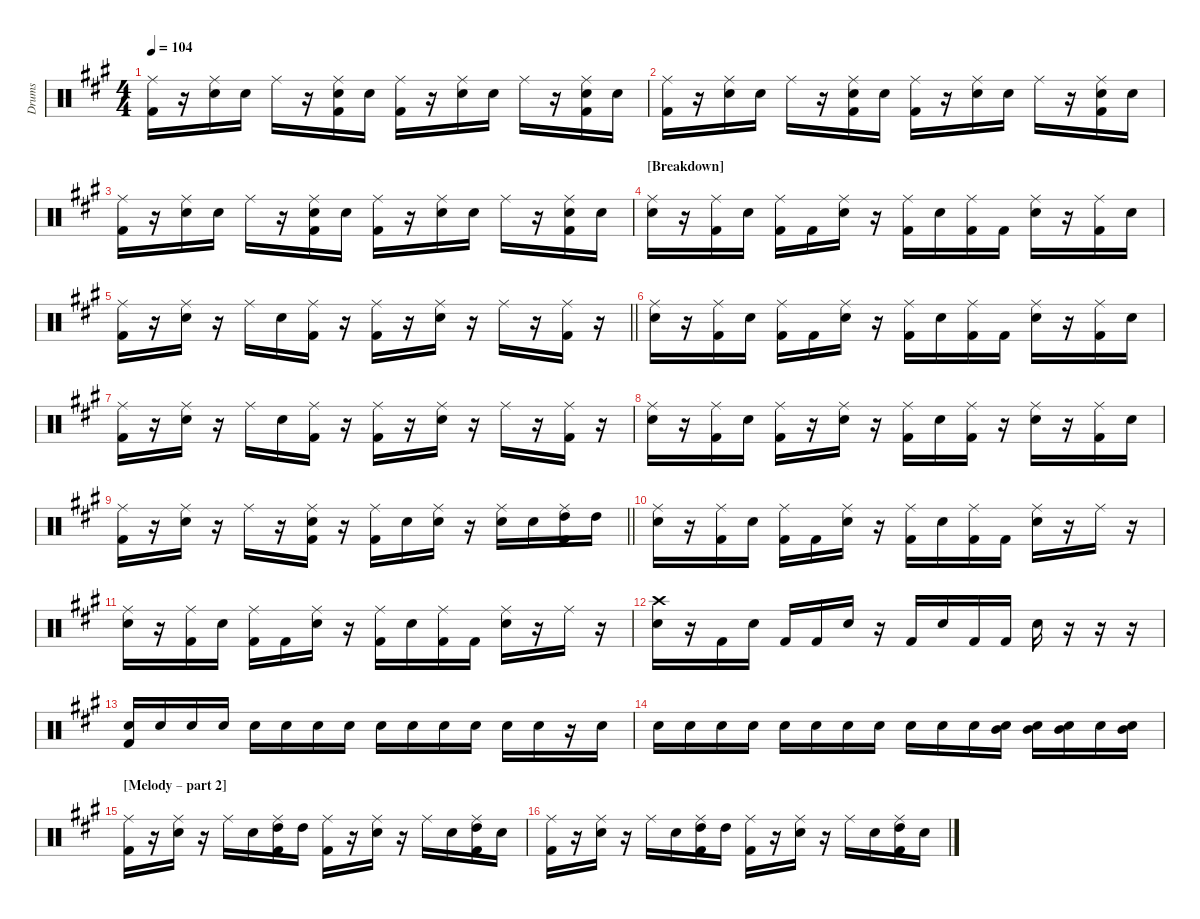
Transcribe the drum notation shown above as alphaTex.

\hideDynamics
\bracketExtendMode nobrackets
\otherSystemsTrackNameOrientation horizontal
\track ("Drumkit" "Drums") {instrument percussion}
\staff {score}
\articulation defaults
\ts (4 4)
\tempo 104
\clef neutral
\ks a
("Ride (middle)"{acc forcenatural} "Kick (hit) 2"{acc forcenatural}).16{dy f beam Down} r.16{beam Down} ("Ride (middle)"{acc forcenatural} "Snare (hit) 2"{acc forcenatural}).16{beam Down} "Snare (hit) 2"{acc forcenatural}.16{beam Down} "Ride (middle)"{acc forcenatural}.16{beam Down} r.16{beam Down} ("Ride (middle)"{acc forcenatural} "Snare (hit) 2"{acc forcenatural} "Kick (hit) 2"{acc forcenatural}).16{beam Down} "Snare (hit) 2"{acc forcenatural}.16{beam Down} ("Ride (middle)"{acc forcenatural} "Kick (hit) 2"{acc forcenatural}).16{beam Down} r.16{beam Down} ("Ride (middle)"{acc forcenatural} "Snare (hit) 2"{acc forcenatural}).16{beam Down} "Snare (hit) 2"{acc forcenatural}.16{beam Down} "Ride (middle)"{acc forcenatural}.16{beam Down} r.16{beam Down} ("Ride (middle)"{acc forcenatural} "Snare (hit) 2"{acc forcenatural} "Kick (hit) 2"{acc forcenatural}).16{beam Down} "Snare (hit) 2"{acc forcenatural}.16{beam Down} |
("Ride (middle)"{acc forcenatural} "Kick (hit) 2"{acc forcenatural}).16{beam Down} r.16{beam Down} ("Ride (middle)"{acc forcenatural} "Snare (hit) 2"{acc forcenatural}).16{beam Down} "Snare (hit) 2"{acc forcenatural}.16{beam Down} "Ride (middle)"{acc forcenatural}.16{beam Down} r.16{beam Down} ("Ride (middle)"{acc forcenatural} "Snare (hit) 2"{acc forcenatural} "Kick (hit) 2"{acc forcenatural}).16{beam Down} "Snare (hit) 2"{acc forcenatural}.16{beam Down} ("Ride (middle)"{acc forcenatural} "Kick (hit) 2"{acc forcenatural}).16{beam Down} r.16{beam Down} ("Ride (middle)"{acc forcenatural} "Snare (hit) 2"{acc forcenatural}).16{beam Down} "Snare (hit) 2"{acc forcenatural}.16{beam Down} "Ride (middle)"{acc forcenatural}.16{beam Down} r.16{beam Down} ("Ride (middle)"{acc forcenatural} "Snare (hit) 2"{acc forcenatural} "Kick (hit) 2"{acc forcenatural}).16{beam Down} "Snare (hit) 2"{acc forcenatural}.16{beam Down} |
("Ride (middle)"{acc forcenatural} "Kick (hit) 2"{acc forcenatural}).16{beam Down} r.16{beam Down} ("Ride (middle)"{acc forcenatural} "Snare (hit) 2"{acc forcenatural}).16{beam Down} "Snare (hit) 2"{acc forcenatural}.16{beam Down} "Ride (middle)"{acc forcenatural}.16{beam Down} r.16{beam Down} ("Ride (middle)"{acc forcenatural} "Snare (hit) 2"{acc forcenatural} "Kick (hit) 2"{acc forcenatural}).16{beam Down} "Snare (hit) 2"{acc forcenatural}.16{beam Down} ("Ride (middle)"{acc forcenatural} "Kick (hit) 2"{acc forcenatural}).16{beam Down} r.16{beam Down} ("Ride (middle)"{acc forcenatural} "Snare (hit) 2"{acc forcenatural}).16{beam Down} "Snare (hit) 2"{acc forcenatural}.16{beam Down} "Ride (middle)"{acc forcenatural}.16{beam Down} r.16{beam Down} ("Ride (middle)"{acc forcenatural} "Snare (hit) 2"{acc forcenatural} "Kick (hit) 2"{acc forcenatural}).16{beam Down} "Snare (hit) 2"{acc forcenatural}.16{beam Down} |
\section ("" "[Breakdown]")
("Ride (middle)"{acc forcenatural} "Snare (hit) 2"{acc forcenatural}).16{beam Down} r.16{beam Down} ("Ride (middle)"{acc forcenatural} "Kick (hit) 2"{acc forcenatural}).16{beam Down} "Snare (hit) 2"{acc forcenatural}.16{beam Down} ("Ride (middle)"{acc forcenatural} "Kick (hit) 2"{acc forcenatural}).16{beam Down} "Kick (hit) 2"{acc forcenatural}.16{beam Down} ("Ride (middle)"{acc forcenatural} "Snare (hit) 2"{acc forcenatural}).16{beam Down} r.16{beam Down} ("Ride (middle)"{acc forcenatural} "Kick (hit) 2"{acc forcenatural}).16{beam Down} "Snare (hit) 2"{acc forcenatural}.16{beam Down} ("Ride (middle)"{acc forcenatural} "Kick (hit) 2"{acc forcenatural}).16{beam Down} "Kick (hit) 2"{acc forcenatural}.16{beam Down} ("Ride (middle)"{acc forcenatural} "Snare (hit) 2"{acc forcenatural}).16{beam Down} r.16{beam Down} ("Ride (middle)"{acc forcenatural} "Kick (hit) 2"{acc forcenatural}).16{beam Down} "Snare (hit) 2"{acc forcenatural}.16{beam Down} |
\barLineRight lightlight
("Ride (middle)"{acc forcenatural} "Kick (hit) 2"{acc forcenatural}).16{beam Down} r.16{beam Down} ("Ride (middle)"{acc forcenatural} "Snare (hit) 2"{acc forcenatural}).16{beam Down} r.16{beam Down} "Ride (middle)"{acc forcenatural}.16{beam Down} "Snare (hit) 2"{acc forcenatural}.16{beam Down} ("Ride (middle)"{acc forcenatural} "Kick (hit) 2"{acc forcenatural}).16{beam Down} r.16{beam Down} ("Ride (middle)"{acc forcenatural} "Kick (hit) 2"{acc forcenatural}).16{beam Down} r.16{beam Down} ("Ride (middle)"{acc forcenatural} "Snare (hit) 2"{acc forcenatural}).16{beam Down} r.16{beam Down} "Ride (middle)"{acc forcenatural}.16{beam Down} r.16{beam Down} ("Ride (middle)"{acc forcenatural} "Kick (hit) 2"{acc forcenatural}).16{beam Down} r.16{beam Down} |
("Ride (middle)"{acc forcenatural} "Snare (hit) 2"{acc forcenatural}).16{beam Down} r.16{beam Down} ("Ride (middle)"{acc forcenatural} "Kick (hit) 2"{acc forcenatural}).16{beam Down} "Snare (hit) 2"{acc forcenatural}.16{beam Down} ("Ride (middle)"{acc forcenatural} "Kick (hit) 2"{acc forcenatural}).16{beam Down} "Kick (hit) 2"{acc forcenatural}.16{beam Down} ("Ride (middle)"{acc forcenatural} "Snare (hit) 2"{acc forcenatural}).16{beam Down} r.16{beam Down} ("Ride (middle)"{acc forcenatural} "Kick (hit) 2"{acc forcenatural}).16{beam Down} "Snare (hit) 2"{acc forcenatural}.16{beam Down} ("Ride (middle)"{acc forcenatural} "Kick (hit) 2"{acc forcenatural}).16{beam Down} "Kick (hit) 2"{acc forcenatural}.16{beam Down} ("Ride (middle)"{acc forcenatural} "Snare (hit) 2"{acc forcenatural}).16{beam Down} r.16{beam Down} ("Ride (middle)"{acc forcenatural} "Kick (hit) 2"{acc forcenatural}).16{beam Down} "Snare (hit) 2"{acc forcenatural}.16{beam Down} |
("Ride (middle)"{acc forcenatural} "Kick (hit) 2"{acc forcenatural}).16{beam Down} r.16{beam Down} ("Ride (middle)"{acc forcenatural} "Snare (hit) 2"{acc forcenatural}).16{beam Down} r.16{beam Down} "Ride (middle)"{acc forcenatural}.16{beam Down} "Snare (hit) 2"{acc forcenatural}.16{beam Down} ("Ride (middle)"{acc forcenatural} "Kick (hit) 2"{acc forcenatural}).16{beam Down} r.16{beam Down} ("Ride (middle)"{acc forcenatural} "Kick (hit) 2"{acc forcenatural}).16{beam Down} r.16{beam Down} ("Ride (middle)"{acc forcenatural} "Snare (hit) 2"{acc forcenatural}).16{beam Down} r.16{beam Down} "Ride (middle)"{acc forcenatural}.16{beam Down} r.16{beam Down} ("Ride (middle)"{acc forcenatural} "Kick (hit) 2"{acc forcenatural}).16{beam Down} r.16{beam Down} |
("Ride (middle)"{acc forcenatural} "Snare (hit) 2"{acc forcenatural}).16{beam Down} r.16{beam Down} ("Ride (middle)"{acc forcenatural} "Kick (hit) 2"{acc forcenatural}).16{beam Down} "Snare (hit) 2"{acc forcenatural}.16{beam Down} ("Ride (middle)"{acc forcenatural} "Kick (hit) 2"{acc forcenatural}).16{beam Down} r.16{beam Down} ("Ride (middle)"{acc forcenatural} "Snare (hit) 2"{acc forcenatural}).16{beam Down} r.16{beam Down} ("Ride (middle)"{acc forcenatural} "Kick (hit) 2"{acc forcenatural}).16{beam Down} "Snare (hit) 2"{acc forcenatural}.16{beam Down} ("Ride (middle)"{acc forcenatural} "Kick (hit) 2"{acc forcenatural}).16{beam Down} r.16{beam Down} ("Ride (middle)"{acc forcenatural} "Snare (hit) 2"{acc forcenatural}).16{beam Down} r.16{beam Down} ("Ride (middle)"{acc forcenatural} "Kick (hit) 2"{acc forcenatural}).16{beam Down} "Snare (hit) 2"{acc forcenatural}.16{beam Down} |
\barLineRight lightlight
("Ride (middle)"{acc forcenatural} "Kick (hit) 2"{acc forcenatural}).16{beam Down} r.16{beam Down} ("Ride (middle)"{acc forcenatural} "Snare (hit) 2"{acc forcenatural}).16{beam Down} r.16{beam Down} "Ride (middle)"{acc forcenatural}.16{beam Down} r.16{beam Down} ("Ride (middle)"{acc forcenatural} "Snare (hit) 2"{acc forcenatural} "Kick (hit) 2"{acc forcenatural}).16{beam Down} r.16{beam Down} ("Ride (middle)"{acc forcenatural} "Kick (hit) 2"{acc forcenatural}).16{beam Down} "Snare (hit) 2"{acc forcenatural}.16{beam Down} ("Ride (middle)"{acc forcenatural} "Snare (hit) 2"{acc forcenatural}).16{beam Down} r.16{beam Down} ("Ride (middle)"{acc forcenatural} "Snare (hit) 2"{acc forcenatural}).16{beam Down} "Snare (hit) 2"{acc forcenatural}.16{beam Down} ("Ride (middle)"{acc forcenatural} "High Tom (hit)"{acc forcenatural} "Kick (hit) 2"{acc forcenatural}).16{beam Down} "High Tom (hit)"{acc forcenatural}.16{beam Down} |
("Ride (middle)"{acc forcenatural} "Snare (hit) 2"{acc forcenatural}).16{beam Down} r.16{beam Down} ("Ride (middle)"{acc forcenatural} "Kick (hit) 2"{acc forcenatural}).16{beam Down} "Snare (hit) 2"{acc forcenatural}.16{beam Down} ("Ride (middle)"{acc forcenatural} "Kick (hit) 2"{acc forcenatural}).16{beam Down} "Kick (hit) 2"{acc forcenatural}.16{beam Down} ("Ride (middle)"{acc forcenatural} "Snare (hit) 2"{acc forcenatural}).16{beam Down} r.16{beam Down} ("Ride (middle)"{acc forcenatural} "Kick (hit) 2"{acc forcenatural}).16{beam Down} "Snare (hit) 2"{acc forcenatural}.16{beam Down} ("Ride (middle)"{acc forcenatural} "Kick (hit) 2"{acc forcenatural}).16{beam Down} "Kick (hit) 2"{acc forcenatural}.16{beam Down} ("Ride (middle)"{acc forcenatural} "Snare (hit) 2"{acc forcenatural}).16{beam Down} r.16{beam Down} "Ride (middle)"{acc forcenatural}.16{beam Down} r.16{beam Down} |
("Ride (middle)"{acc forcenatural} "Snare (hit) 2"{acc forcenatural}).16{beam Down} r.16{beam Down} ("Ride (middle)"{acc forcenatural} "Kick (hit) 2"{acc forcenatural}).16{beam Down} "Snare (hit) 2"{acc forcenatural}.16{beam Down} ("Ride (middle)"{acc forcenatural} "Kick (hit) 2"{acc forcenatural}).16{beam Down} "Kick (hit) 2"{acc forcenatural}.16{beam Down} ("Ride (middle)"{acc forcenatural} "Snare (hit) 2"{acc forcenatural}).16{beam Down} r.16{beam Down} ("Ride (middle)"{acc forcenatural} "Kick (hit) 2"{acc forcenatural}).16{beam Down} "Snare (hit) 2"{acc forcenatural}.16{beam Down} ("Ride (middle)"{acc forcenatural} "Kick (hit) 2"{acc forcenatural}).16{beam Down} "Kick (hit) 2"{acc forcenatural}.16{beam Down} ("Ride (middle)"{acc forcenatural} "Snare (hit) 2"{acc forcenatural}).16{beam Down} r.16{beam Down} "Ride (middle)"{acc forcenatural}.16{beam Down} r.16{beam Down} |
("Crash high (hit)"{acc forcenatural} "Snare (hit) 2"{acc forcenatural}).16{beam Down} r.16{beam Down} "Kick (hit) 2"{acc forcenatural}.16{beam Down} "Snare (hit) 2"{acc forcenatural}.16{beam Down} "Kick (hit) 2"{acc forcenatural}.16{beam Up} "Kick (hit) 2"{acc forcenatural}.16{beam Up} "Snare (hit) 2"{acc forcenatural}.16{beam Up} r.16{beam Up} "Kick (hit) 2"{acc forcenatural}.16{beam Up} "Snare (hit) 2"{acc forcenatural}.16{beam Up} "Kick (hit) 2"{acc forcenatural}.16{beam Up} "Kick (hit) 2"{acc forcenatural}.16{beam Up} "Snare (hit) 2"{acc forcenatural}.16{beam Down} r.16{beam Down} r.16{beam Down} r.16{beam Down} |
("Snare (hit) 2"{acc forcenatural} "Kick (hit) 2"{acc forcenatural}).16{beam Up} "Snare (hit) 2"{acc forcenatural}.16{beam Up} "Snare (hit) 2"{acc forcenatural}.16{beam Up} "Snare (hit) 2"{acc forcenatural}.16{beam Up} "Snare (hit) 2"{acc forcenatural}.16{beam Down} "Snare (hit) 2"{acc forcenatural}.16{beam Down} "Snare (hit) 2"{acc forcenatural}.16{beam Down} "Snare (hit) 2"{acc forcenatural}.16{beam Down} "Snare (hit) 2"{acc forcenatural}.16{beam Down} "Snare (hit) 2"{acc forcenatural}.16{beam Down} "Snare (hit) 2"{acc forcenatural}.16{beam Down} "Snare (hit) 2"{acc forcenatural}.16{beam Down} "Snare (hit) 2"{acc forcenatural}.16{beam Down} "Snare (hit) 2"{acc forcenatural}.16{beam Down} r.16{beam Down} "Snare (hit) 2"{acc forcenatural}.16{beam Down} |
"Snare (hit) 2"{acc forcenatural}.16{beam Down} "Snare (hit) 2"{acc forcenatural}.16{beam Down} "Snare (hit) 2"{acc forcenatural}.16{beam Down} "Snare (hit) 2"{acc forcenatural}.16{beam Down} "Snare (hit) 2"{acc forcenatural}.16{beam Down} "Snare (hit) 2"{acc forcenatural}.16{beam Down} "Snare (hit) 2"{acc forcenatural}.16{beam Down} "Snare (hit) 2"{acc forcenatural}.16{beam Down} "Snare (hit) 2"{acc forcenatural}.16{beam Down} "Snare (hit) 2"{acc forcenatural}.16{beam Down} "Snare (hit) 2"{acc forcenatural}.16{beam Down} ("Mid Tom (hit)"{acc forcenatural} "Snare (hit) 2"{acc forcenatural}).16{beam Down} ("Mid Tom (hit)"{acc forcenatural} "Snare (hit) 2"{acc forcenatural}).16{beam Down} ("Mid Tom (hit)"{acc forcenatural} "Snare (hit) 2"{acc forcenatural}).16{beam Down} "Snare (hit) 2"{acc forcenatural}.16{beam Down} ("Mid Tom (hit)"{acc forcenatural} "Snare (hit) 2"{acc forcenatural}).16{beam Down} |
\section ("" "[Melody – part 2] ")
("Ride (middle)"{acc forcenatural} "Kick (hit) 2"{acc forcenatural}).16{beam Down} r.16{beam Down} ("Ride (middle)"{acc forcenatural} "Snare (hit) 2"{acc forcenatural}).16{beam Down} r.16{beam Down} "Ride (middle)"{acc forcenatural}.16{beam Down} "Snare (hit) 2"{acc forcenatural}.16{beam Down} ("Ride (middle)"{acc forcenatural} "High Tom (hit)"{acc forcenatural} "Kick (hit) 2"{acc forcenatural}).16{beam Down} "High Tom (hit)"{acc forcenatural}.16{beam Down} ("Ride (middle)"{acc forcenatural} "Kick (hit) 2"{acc forcenatural}).16{beam Down} r.16{beam Down} ("Ride (middle)"{acc forcenatural} "Snare (hit) 2"{acc forcenatural}).16{beam Down} r.16{beam Down} "Ride (middle)"{acc forcenatural}.16{beam Down} "Snare (hit) 2"{acc forcenatural}.16{beam Down} ("Ride (middle)"{acc forcenatural} "High Tom (hit)"{acc forcenatural} "Kick (hit) 2"{acc forcenatural}).16{beam Down} "Snare (hit) 2"{acc forcenatural}.16{beam Down} |
("Ride (middle)"{acc forcenatural} "Kick (hit) 2"{acc forcenatural}).16{beam Down} r.16{beam Down} ("Ride (middle)"{acc forcenatural} "Snare (hit) 2"{acc forcenatural}).16{beam Down} r.16{beam Down} "Ride (middle)"{acc forcenatural}.16{beam Down} "Snare (hit) 2"{acc forcenatural}.16{beam Down} ("Ride (middle)"{acc forcenatural} "High Tom (hit)"{acc forcenatural} "Kick (hit) 2"{acc forcenatural}).16{beam Down} "High Tom (hit)"{acc forcenatural}.16{beam Down} ("Ride (middle)"{acc forcenatural} "Kick (hit) 2"{acc forcenatural}).16{beam Down} r.16{beam Down} ("Ride (middle)"{acc forcenatural} "Snare (hit) 2"{acc forcenatural}).16{beam Down} r.16{beam Down} "Ride (middle)"{acc forcenatural}.16{beam Down} "Snare (hit) 2"{acc forcenatural}.16{beam Down} ("Ride (middle)"{acc forcenatural} "High Tom (hit)"{acc forcenatural} "Kick (hit) 2"{acc forcenatural}).16{beam Down} "Snare (hit) 2"{acc forcenatural}.16{beam Down}
